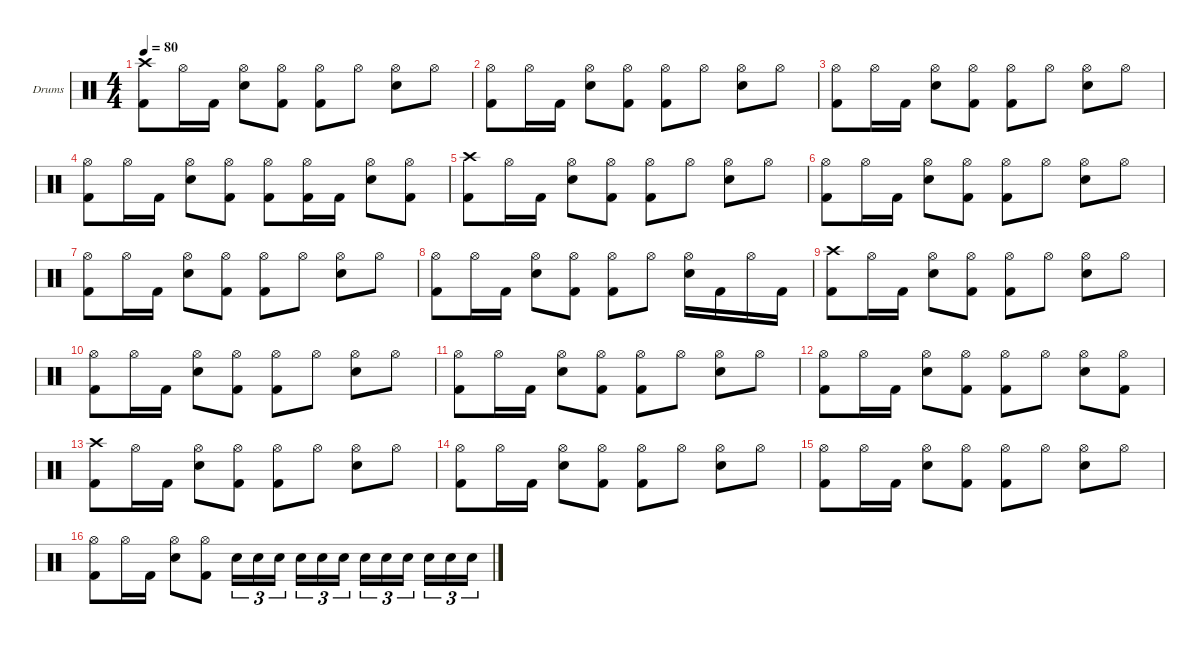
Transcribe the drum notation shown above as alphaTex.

\hideDynamics
\bracketExtendMode nobrackets
\firstSystemTrackNameOrientation horizontal
\otherSystemsTrackNameOrientation horizontal
\track ("Drumkit" "Drums") {instrument percussion}
\staff {score}
\articulation defaults
\ts (4 4)
\tempo 80
\clef neutral
\ks c
("Crash high (hit)" "Kick (hit) 2").8{dy f} "Hi-Hat (open)".16 "Kick (hit) 2".16 ("Hi-Hat (open)" "Snare (hit) 2").8 ("Hi-Hat (open)" "Kick (hit) 2").8 ("Hi-Hat (open)" "Kick (hit) 2").8 "Hi-Hat (open)".8 ("Hi-Hat (open)" "Snare (hit) 2").8 "Hi-Hat (open)".8 |
("Hi-Hat (open)" "Kick (hit) 2").8 "Hi-Hat (open)".16 "Kick (hit) 2".16 ("Hi-Hat (open)" "Snare (hit) 2").8 ("Hi-Hat (open)" "Kick (hit) 2").8 ("Hi-Hat (open)" "Kick (hit) 2").8 "Hi-Hat (open)".8 ("Hi-Hat (open)" "Snare (hit) 2").8 "Hi-Hat (open)".8 |
("Hi-Hat (open)" "Kick (hit) 2").8 "Hi-Hat (open)".16 "Kick (hit) 2".16 ("Hi-Hat (open)" "Snare (hit) 2").8 ("Hi-Hat (open)" "Kick (hit) 2").8 ("Hi-Hat (open)" "Kick (hit) 2").8 "Hi-Hat (open)".8 ("Hi-Hat (open)" "Snare (hit) 2").8 "Hi-Hat (open)".8 |
("Hi-Hat (open)" "Kick (hit) 2").8 "Hi-Hat (open)".16 "Kick (hit) 2".16 ("Hi-Hat (open)" "Snare (hit) 2").8 ("Hi-Hat (open)" "Kick (hit) 2").8 ("Hi-Hat (open)" "Kick (hit) 2").8 ("Hi-Hat (open)" "Kick (hit) 2").16 "Kick (hit) 2".16 ("Hi-Hat (open)" "Snare (hit) 2").8 ("Hi-Hat (open)" "Kick (hit) 2").8{dy fff} |
("Crash high (hit)" "Kick (hit) 2").8{dy f} "Hi-Hat (open)".16 "Kick (hit) 2".16 ("Hi-Hat (open)" "Snare (hit) 2").8 ("Hi-Hat (open)" "Kick (hit) 2").8 ("Hi-Hat (open)" "Kick (hit) 2").8 "Hi-Hat (open)".8 ("Hi-Hat (open)" "Snare (hit) 2").8 "Hi-Hat (open)".8 |
("Hi-Hat (open)" "Kick (hit) 2").8 "Hi-Hat (open)".16 "Kick (hit) 2".16 ("Hi-Hat (open)" "Snare (hit) 2").8 ("Hi-Hat (open)" "Kick (hit) 2").8 ("Hi-Hat (open)" "Kick (hit) 2").8 "Hi-Hat (open)".8 ("Hi-Hat (open)" "Snare (hit) 2").8 "Hi-Hat (open)".8 |
("Hi-Hat (open)" "Kick (hit) 2").8 "Hi-Hat (open)".16 "Kick (hit) 2".16 ("Hi-Hat (open)" "Snare (hit) 2").8 ("Hi-Hat (open)" "Kick (hit) 2").8 ("Hi-Hat (open)" "Kick (hit) 2").8 "Hi-Hat (open)".8 ("Hi-Hat (open)" "Snare (hit) 2").8 "Hi-Hat (open)".8 |
("Hi-Hat (open)" "Kick (hit) 2").8 "Hi-Hat (open)".16 "Kick (hit) 2".16 ("Hi-Hat (open)" "Snare (hit) 2").8 ("Hi-Hat (open)" "Kick (hit) 2").8 ("Hi-Hat (open)" "Kick (hit) 2").8 "Hi-Hat (open)".8 ("Hi-Hat (open)" "Snare (hit) 2").16 "Kick (hit) 2".16 "Hi-Hat (open)".16 "Kick (hit) 2".16 |
("Crash high (hit)" "Kick (hit) 2").8 "Hi-Hat (open)".16 "Kick (hit) 2".16 ("Hi-Hat (open)" "Snare (hit) 2").8 ("Hi-Hat (open)" "Kick (hit) 2").8 ("Hi-Hat (open)" "Kick (hit) 2").8 "Hi-Hat (open)".8 ("Hi-Hat (open)" "Snare (hit) 2").8 "Hi-Hat (open)".8 |
("Hi-Hat (open)" "Kick (hit) 2").8 "Hi-Hat (open)".16 "Kick (hit) 2".16 ("Hi-Hat (open)" "Snare (hit) 2").8 ("Hi-Hat (open)" "Kick (hit) 2").8 ("Hi-Hat (open)" "Kick (hit) 2").8 "Hi-Hat (open)".8 ("Hi-Hat (open)" "Snare (hit) 2").8 "Hi-Hat (open)".8 |
("Hi-Hat (open)" "Kick (hit) 2").8 "Hi-Hat (open)".16 "Kick (hit) 2".16 ("Hi-Hat (open)" "Snare (hit) 2").8 ("Hi-Hat (open)" "Kick (hit) 2").8 ("Hi-Hat (open)" "Kick (hit) 2").8 "Hi-Hat (open)".8 ("Hi-Hat (open)" "Snare (hit) 2").8 "Hi-Hat (open)".8 |
("Hi-Hat (open)" "Kick (hit) 2").8 "Hi-Hat (open)".16 "Kick (hit) 2".16 ("Hi-Hat (open)" "Snare (hit) 2").8 ("Hi-Hat (open)" "Kick (hit) 2").8 ("Hi-Hat (open)" "Kick (hit) 2").8 "Hi-Hat (open)".8 ("Hi-Hat (open)" "Snare (hit) 2").8 ("Hi-Hat (open)" "Kick (hit) 2").8 |
("Crash high (hit)" "Kick (hit) 2").8 "Hi-Hat (open)".16 "Kick (hit) 2".16 ("Hi-Hat (open)" "Snare (hit) 2").8 ("Hi-Hat (open)" "Kick (hit) 2").8 ("Hi-Hat (open)" "Kick (hit) 2").8 "Hi-Hat (open)".8 ("Hi-Hat (open)" "Snare (hit) 2").8 "Hi-Hat (open)".8 |
("Hi-Hat (open)" "Kick (hit) 2").8 "Hi-Hat (open)".16 "Kick (hit) 2".16 ("Hi-Hat (open)" "Snare (hit) 2").8 ("Hi-Hat (open)" "Kick (hit) 2").8 ("Hi-Hat (open)" "Kick (hit) 2").8 "Hi-Hat (open)".8 ("Hi-Hat (open)" "Snare (hit) 2").8 "Hi-Hat (open)".8 |
("Hi-Hat (open)" "Kick (hit) 2").8 "Hi-Hat (open)".16 "Kick (hit) 2".16 ("Hi-Hat (open)" "Snare (hit) 2").8 ("Hi-Hat (open)" "Kick (hit) 2").8 ("Hi-Hat (open)" "Kick (hit) 2").8 "Hi-Hat (open)".8 ("Hi-Hat (open)" "Snare (hit) 2").8 "Hi-Hat (open)".8 |
("Hi-Hat (open)" "Kick (hit) 2").8 "Hi-Hat (open)".16 "Kick (hit) 2".16 ("Hi-Hat (open)" "Snare (hit) 2").8 ("Hi-Hat (open)" "Kick (hit) 2").8 "Snare (hit) 2".16{tu (3 2) dy mp} "Snare (hit) 2".16{tu (3 2)} "Snare (hit) 2".16{tu (3 2) dy mf} "Snare (hit) 2".16{tu (3 2)} "Snare (hit) 2".16{tu (3 2)} "Snare (hit) 2".16{tu (3 2)} "Snare (hit) 2".16{tu (3 2) dy f} "Snare (hit) 2".16{tu (3 2)} "Snare (hit) 2".16{tu (3 2)} "Snare (hit) 2".16{tu (3 2) dy ff} "Snare (hit) 2".16{tu (3 2)} "Snare (hit) 2".16{tu (3 2)}
